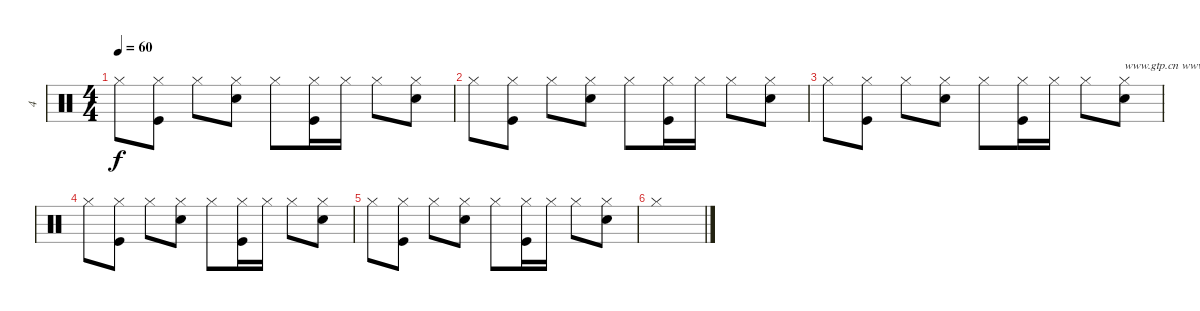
\track ("4" "4") {instrument percussion}
\staff {score}
\articulation defaults
\ts (4 4)
\tempo 60
\clef neutral
\ks c "Hi-Hat (closed)".8{dy f}
("Kick (hit)" "Hi-Hat (closed)").8 "Hi-Hat (closed)".8 ("Hand Clap (hit)" "Hi-Hat (closed)").8 "Hi-Hat (closed)".8 ("Kick (hit)" "Hi-Hat (closed)").16 "Hi-Hat (closed)".16 "Hi-Hat (closed)".8 ("Hand Clap (hit)" "Hi-Hat (closed)").8 |
"Hi-Hat (closed)".8 ("Kick (hit)" "Hi-Hat (closed)").8 "Hi-Hat (closed)".8 ("Hand Clap (hit)" "Hi-Hat (closed)").8 "Hi-Hat (closed)".8 ("Kick (hit)" "Hi-Hat (closed)").16 "Hi-Hat (closed)".16 "Hi-Hat (closed)".8 ("Hand Clap (hit)" "Hi-Hat (closed)").8 |
"Hi-Hat (closed)".8 ("Kick (hit)" "Hi-Hat (closed)").8 "Hi-Hat (closed)".8 ("Hand Clap (hit)" "Hi-Hat (closed)").8 "Hi-Hat (closed)".8 ("Kick (hit)" "Hi-Hat (closed)").16 "Hi-Hat (closed)".16 "Hi-Hat (closed)".8 ("Hand Clap (hit)" "Hi-Hat (closed)").8{txt "www.gtp.cn www.51gtp.com联合为您提供优秀的GTP!"} |
"Hi-Hat (closed)".8 ("Kick (hit)" "Hi-Hat (closed)").8 "Hi-Hat (closed)".8 ("Hand Clap (hit)" "Hi-Hat (closed)").8 "Hi-Hat (closed)".8 ("Kick (hit)" "Hi-Hat (closed)").16 "Hi-Hat (closed)".16 "Hi-Hat (closed)".8 ("Hand Clap (hit)" "Hi-Hat (closed)").8 |
"Hi-Hat (closed)".8 ("Kick (hit)" "Hi-Hat (closed)").8 "Hi-Hat (closed)".8 ("Hand Clap (hit)" "Hi-Hat (closed)").8 "Hi-Hat (closed)".8 ("Kick (hit)" "Hi-Hat (closed)").16 "Hi-Hat (closed)".16 "Hi-Hat (closed)".8 ("Hand Clap (hit)" "Hi-Hat (closed)").8 |
"Hi-Hat (closed)".1
